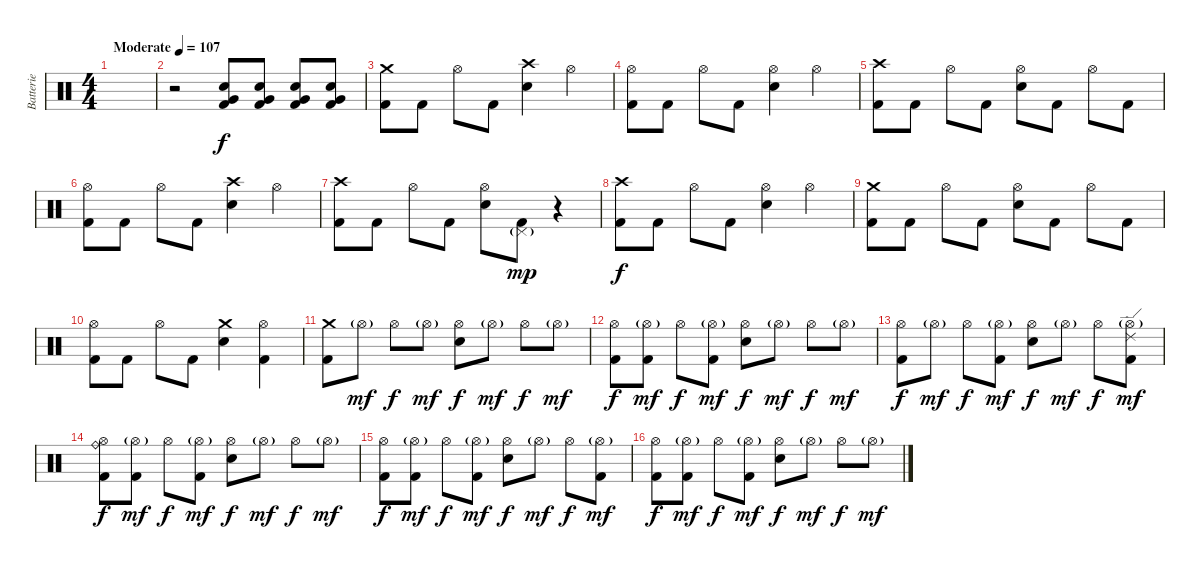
\track ("Batterie" "Batterie") {instrument percussion}
\staff {score}
\articulation defaults
\ts (4 4)
\tempo (107 "Moderate")
\clef neutral
\ks c
|
r.2 ("Very Low Tom (hit)" "Electric Snare (hit)" "Kick (hit) 2").8 ("Very Low Tom (hit)" "Electric Snare (hit)" "Kick (hit) 2").8 ("Very Low Tom (hit)" "Electric Snare (hit)" "Kick (hit) 2").8 ("Very Low Tom (hit)" "Electric Snare (hit)" "Kick (hit) 2").8 |
("Crash medium (hit)" "Kick (hit) 2").8 "Kick (hit) 2".8 "Hi-Hat (open)".8 "Kick (hit) 2".8 ("Crash high (hit)" "Electric Snare (hit)").4 "Hi-Hat (open)".4 |
("Hi-Hat (open)" "Kick (hit) 2").8 "Kick (hit) 2".8 "Hi-Hat (open)".8 "Kick (hit) 2".8 ("Hi-Hat (open)" "Electric Snare (hit)").4 "Hi-Hat (open)".4 |
("Crash high (hit)" "Kick (hit) 2").8 "Kick (hit) 2".8 "Hi-Hat (open)".8 "Kick (hit) 2".8 ("Hi-Hat (open)" "Electric Snare (hit)").8 "Kick (hit) 2".8 "Hi-Hat (open)".8 "Kick (hit) 2".8 |
("Hi-Hat (open)" "Kick (hit) 2").8 "Kick (hit) 2".8 "Hi-Hat (open)".8 "Kick (hit) 2".8 ("Crash high (hit)" "Electric Snare (hit)").4 "Hi-Hat (open)".4 |
("Crash high (hit)" "Kick (hit) 2").8 "Kick (hit) 2".8 "Hi-Hat (open)".8 "Kick (hit) 2".8 ("Hi-Hat (open)" "Electric Snare (hit)").8 ("Pedal Hi-Hat (hit)"{g} "Kick (hit) 2").8{dy mp} r.4 |
("Crash high (hit)" "Kick (hit) 2").8{dy f} "Kick (hit) 2".8 "Hi-Hat (open)".8 "Kick (hit) 2".8 ("Hi-Hat (open)" "Electric Snare (hit)").4 "Hi-Hat (open)".4 |
("Crash medium (hit)" "Kick (hit) 2").8 "Kick (hit) 2".8 "Hi-Hat (open)".8 "Kick (hit) 2".8 ("Hi-Hat (open)" "Electric Snare (hit)").8 "Kick (hit) 2".8 "Hi-Hat (open)".8 "Kick (hit) 2".8 |
("Hi-Hat (open)" "Kick (hit) 2").8 "Kick (hit) 2".8 "Hi-Hat (open)".8 "Kick (hit) 2".8 ("Crash medium (hit)" "Electric Snare (hit)").4 ("Hi-Hat (open)" "Kick (hit) 2").4 |
("Crash medium (hit)" "Kick (hit) 2").8 "Hi-Hat (open)"{g}.8{dy mf} "Hi-Hat (open)".8{dy f} "Hi-Hat (open)"{g}.8{dy mf} ("Hi-Hat (open)" "Electric Snare (hit)").8{dy f} "Hi-Hat (open)"{g}.8{dy mf} "Hi-Hat (open)".8{dy f} "Hi-Hat (open)"{g}.8{dy mf} |
("Hi-Hat (open)" "Kick (hit) 2").8{dy f} ("Hi-Hat (open)"{g} "Kick (hit) 2").8{dy mf} "Hi-Hat (open)".8{dy f} ("Hi-Hat (open)"{g} "Kick (hit) 2").8{dy mf} ("Hi-Hat (open)" "Electric Snare (hit)").8{dy f} "Hi-Hat (open)"{g}.8{dy mf} "Hi-Hat (open)".8{dy f} "Hi-Hat (open)"{g}.8{dy mf} |
("Hi-Hat (open)" "Kick (hit) 2").8{dy f} "Hi-Hat (open)"{g}.8{dy mf} "Hi-Hat (open)".8{dy f} ("Hi-Hat (open)"{g} "Kick (hit) 2").8{dy mf} ("Hi-Hat (open)" "Electric Snare (hit)").8{dy f} "Hi-Hat (open)"{g}.8{dy mf} "Hi-Hat (open)".8{dy f} ("Ride (edge) 2" "Hi-Hat (open)"{g} "Kick (hit) 2").8{dy mf} |
("Ride (bell)" "Hi-Hat (open)" "Kick (hit) 2").8{dy f} ("Hi-Hat (open)"{g} "Kick (hit) 2").8{dy mf} "Hi-Hat (open)".8{dy f} ("Hi-Hat (open)"{g} "Kick (hit) 2").8{dy mf} ("Hi-Hat (open)" "Electric Snare (hit)").8{dy f} "Hi-Hat (open)"{g}.8{dy mf} "Hi-Hat (open)".8{dy f} "Hi-Hat (open)"{g}.8{dy mf} |
("Hi-Hat (open)" "Kick (hit) 2").8{dy f} ("Hi-Hat (open)"{g} "Kick (hit) 2").8{dy mf} "Hi-Hat (open)".8{dy f} ("Hi-Hat (open)"{g} "Kick (hit) 2").8{dy mf} ("Hi-Hat (open)" "Electric Snare (hit)").8{dy f} "Hi-Hat (open)"{g}.8{dy mf} "Hi-Hat (open)".8{dy f} ("Hi-Hat (open)"{g} "Kick (hit) 2").8{dy mf} |
("Hi-Hat (open)" "Kick (hit) 2").8{dy f} ("Hi-Hat (open)"{g} "Kick (hit) 2").8{dy mf} "Hi-Hat (open)".8{dy f} ("Hi-Hat (open)"{g} "Kick (hit) 2").8{dy mf} ("Hi-Hat (open)" "Electric Snare (hit)").8{dy f} "Hi-Hat (open)"{g}.8{dy mf} "Hi-Hat (open)".8{dy f} "Hi-Hat (open)"{g}.8{dy mf}
